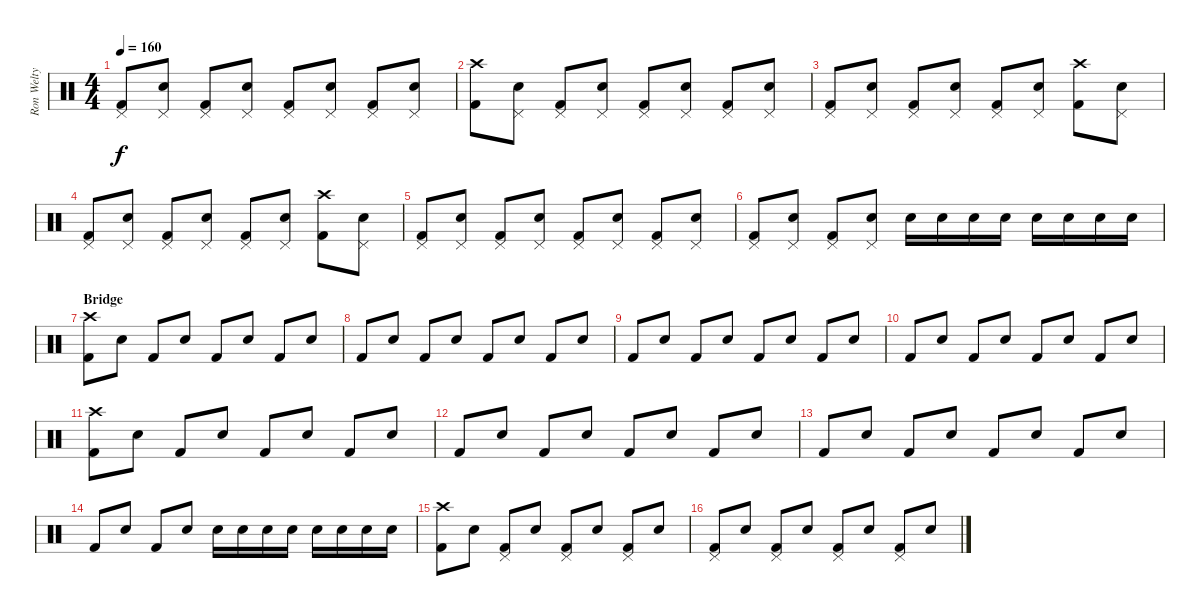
\track ("Ron Welty" "Ron Welty") {instrument percussion}
\staff {score}
\articulation defaults
\ts (4 4)
\tempo 160
\clef neutral
\ks c
("Pedal Hi-Hat (hit)" "Kick (hit) 2").8{dy f} ("Pedal Hi-Hat (hit)" "Snare (hit) 2").8 ("Pedal Hi-Hat (hit)" "Kick (hit) 2").8 ("Pedal Hi-Hat (hit)" "Snare (hit) 2").8 ("Pedal Hi-Hat (hit)" "Kick (hit) 2").8 ("Pedal Hi-Hat (hit)" "Snare (hit) 2").8 ("Pedal Hi-Hat (hit)" "Kick (hit) 2").8 ("Pedal Hi-Hat (hit)" "Snare (hit) 2").8 |
("Crash high (hit)" "Kick (hit) 2").8 ("Pedal Hi-Hat (hit)" "Snare (hit) 2").8 ("Pedal Hi-Hat (hit)" "Kick (hit) 2").8 ("Pedal Hi-Hat (hit)" "Snare (hit) 2").8 ("Pedal Hi-Hat (hit)" "Kick (hit) 2").8 ("Pedal Hi-Hat (hit)" "Snare (hit) 2").8 ("Pedal Hi-Hat (hit)" "Kick (hit) 2").8 ("Pedal Hi-Hat (hit)" "Snare (hit) 2").8 |
("Pedal Hi-Hat (hit)" "Kick (hit) 2").8 ("Pedal Hi-Hat (hit)" "Snare (hit) 2").8 ("Pedal Hi-Hat (hit)" "Kick (hit) 2").8 ("Pedal Hi-Hat (hit)" "Snare (hit) 2").8 ("Pedal Hi-Hat (hit)" "Kick (hit) 2").8 ("Pedal Hi-Hat (hit)" "Snare (hit) 2").8 ("Crash high (hit)" "Kick (hit) 2").8 ("Pedal Hi-Hat (hit)" "Snare (hit) 2").8 |
("Pedal Hi-Hat (hit)" "Kick (hit) 2").8 ("Pedal Hi-Hat (hit)" "Snare (hit) 2").8 ("Pedal Hi-Hat (hit)" "Kick (hit) 2").8 ("Pedal Hi-Hat (hit)" "Snare (hit) 2").8 ("Pedal Hi-Hat (hit)" "Kick (hit) 2").8 ("Pedal Hi-Hat (hit)" "Snare (hit) 2").8 ("Crash high (hit)" "Kick (hit) 2").8 ("Pedal Hi-Hat (hit)" "Snare (hit) 2").8 |
("Pedal Hi-Hat (hit)" "Kick (hit) 2").8 ("Pedal Hi-Hat (hit)" "Snare (hit) 2").8 ("Pedal Hi-Hat (hit)" "Kick (hit) 2").8 ("Pedal Hi-Hat (hit)" "Snare (hit) 2").8 ("Pedal Hi-Hat (hit)" "Kick (hit) 2").8 ("Pedal Hi-Hat (hit)" "Snare (hit) 2").8 ("Pedal Hi-Hat (hit)" "Kick (hit) 2").8 ("Pedal Hi-Hat (hit)" "Snare (hit) 2").8 |
("Pedal Hi-Hat (hit)" "Kick (hit) 2").8 ("Pedal Hi-Hat (hit)" "Snare (hit) 2").8 ("Pedal Hi-Hat (hit)" "Kick (hit) 2").8 ("Pedal Hi-Hat (hit)" "Snare (hit) 2").8 "Snare (hit) 2".16 "Snare (hit) 2".16 "Snare (hit) 2".16 "Snare (hit) 2".16 "Snare (hit) 2".16 "Snare (hit) 2".16 "Snare (hit) 2".16 "Snare (hit) 2".16 |
\section ("" "Bridge")
("Crash high (hit)" "Kick (hit) 2").8 "Snare (hit) 2".8 "Kick (hit) 2".8 "Snare (hit) 2".8 "Kick (hit) 2".8 "Snare (hit) 2".8 "Kick (hit) 2".8 "Snare (hit) 2".8 |
"Kick (hit) 2".8 "Snare (hit) 2".8 "Kick (hit) 2".8 "Snare (hit) 2".8 "Kick (hit) 2".8 "Snare (hit) 2".8 "Kick (hit) 2".8 "Snare (hit) 2".8 |
"Kick (hit) 2".8 "Snare (hit) 2".8 "Kick (hit) 2".8 "Snare (hit) 2".8 "Kick (hit) 2".8 "Snare (hit) 2".8 "Kick (hit) 2".8 "Snare (hit) 2".8 |
"Kick (hit) 2".8 "Snare (hit) 2".8 "Kick (hit) 2".8 "Snare (hit) 2".8 "Kick (hit) 2".8 "Snare (hit) 2".8 "Kick (hit) 2".8 "Snare (hit) 2".8 |
("Crash high (hit)" "Kick (hit) 2").8 "Snare (hit) 2".8 "Kick (hit) 2".8 "Snare (hit) 2".8 "Kick (hit) 2".8 "Snare (hit) 2".8 "Kick (hit) 2".8 "Snare (hit) 2".8 |
"Kick (hit) 2".8 "Snare (hit) 2".8 "Kick (hit) 2".8 "Snare (hit) 2".8 "Kick (hit) 2".8 "Snare (hit) 2".8 "Kick (hit) 2".8 "Snare (hit) 2".8 |
"Kick (hit) 2".8 "Snare (hit) 2".8 "Kick (hit) 2".8 "Snare (hit) 2".8 "Kick (hit) 2".8 "Snare (hit) 2".8 "Kick (hit) 2".8 "Snare (hit) 2".8 |
"Kick (hit) 2".8 "Snare (hit) 2".8 "Kick (hit) 2".8 "Snare (hit) 2".8 "Snare (hit) 2".16 "Snare (hit) 2".16 "Snare (hit) 2".16 "Snare (hit) 2".16 "Snare (hit) 2".16 "Snare (hit) 2".16 "Snare (hit) 2".16 "Snare (hit) 2".16 |
("Crash high (hit)" "Kick (hit) 2").8 "Snare (hit) 2".8 ("Pedal Hi-Hat (hit)" "Kick (hit) 2").8 "Snare (hit) 2".8 ("Pedal Hi-Hat (hit)" "Kick (hit) 2").8 "Snare (hit) 2".8 ("Pedal Hi-Hat (hit)" "Kick (hit) 2").8 "Snare (hit) 2".8 |
("Pedal Hi-Hat (hit)" "Kick (hit) 2").8 "Snare (hit) 2".8 ("Pedal Hi-Hat (hit)" "Kick (hit) 2").8 "Snare (hit) 2".8 ("Pedal Hi-Hat (hit)" "Kick (hit) 2").8 "Snare (hit) 2".8 ("Pedal Hi-Hat (hit)" "Kick (hit) 2").8 "Snare (hit) 2".8
